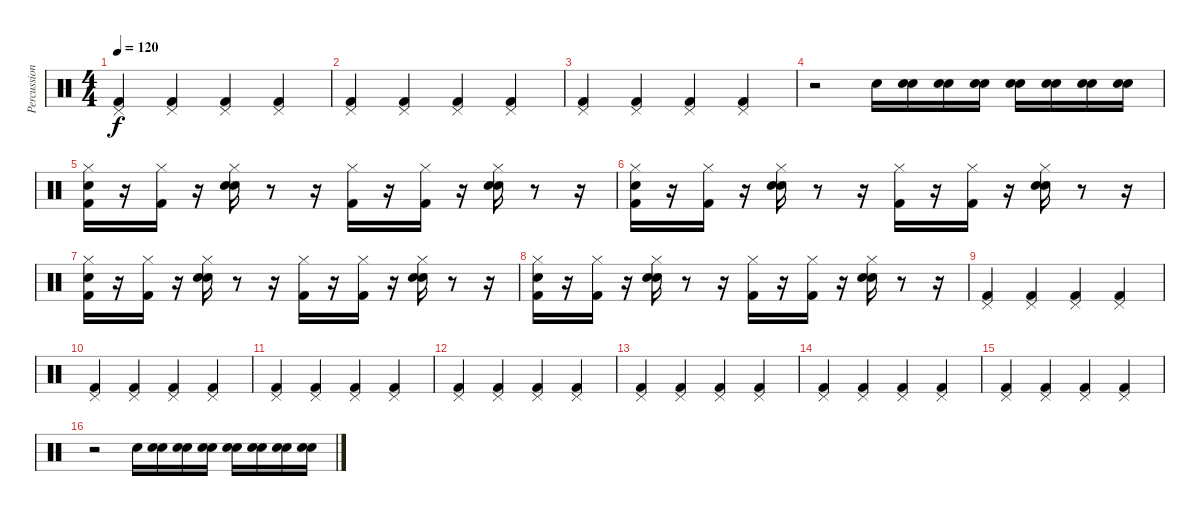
\track ("Percussions" "Percussion") {instrument percussion}
\staff {score}
\articulation defaults
\ts (4 4)
\tempo 120
\clef neutral
\ks c
("Pedal Hi-Hat (hit)" "Kick (hit) 2").4{dy f} ("Pedal Hi-Hat (hit)" "Kick (hit) 2").4 ("Pedal Hi-Hat (hit)" "Kick (hit) 2").4 ("Pedal Hi-Hat (hit)" "Kick (hit) 2").4 |
("Pedal Hi-Hat (hit)" "Kick (hit) 2").4 ("Pedal Hi-Hat (hit)" "Kick (hit) 2").4 ("Pedal Hi-Hat (hit)" "Kick (hit) 2").4 ("Pedal Hi-Hat (hit)" "Kick (hit) 2").4 |
("Pedal Hi-Hat (hit)" "Kick (hit) 2").4 ("Pedal Hi-Hat (hit)" "Kick (hit) 2").4 ("Pedal Hi-Hat (hit)" "Kick (hit) 2").4 ("Pedal Hi-Hat (hit)" "Kick (hit) 2").4 |
r.2 "Snare (hit) 2".16 ("Snare (hit)" "Snare (hit) 2").16 ("Snare (hit)" "Snare (hit) 2").16 ("Snare (hit)" "Snare (hit) 2").16 ("Snare (hit)" "Snare (hit) 2").16 ("Snare (hit)" "Snare (hit) 2").16 ("Snare (hit)" "Snare (hit) 2").16 ("Snare (hit)" "Snare (hit) 2").16 |
("Snare (hit)" "Kick (hit) 2" "Hi-Hat (closed)").16 r.16 ("Kick (hit) 2" "Hi-Hat (closed)").16 r.16 ("Hand Clap (hit)" "Hi-Hat (closed)" "Snare (hit) 2").16 r.8 r.16 ("Hi-Hat (closed)" "Kick (hit) 2").16 r.16 ("Hi-Hat (closed)" "Kick (hit) 2").16 r.16 ("Snare (hit) 2" "Hand Clap (hit)" "Hi-Hat (closed)").16 r.8 r.16 |
("Snare (hit)" "Kick (hit) 2" "Hi-Hat (closed)").16 r.16 ("Kick (hit) 2" "Hi-Hat (closed)").16 r.16 ("Hand Clap (hit)" "Hi-Hat (closed)" "Snare (hit) 2").16 r.8 r.16 ("Hi-Hat (closed)" "Kick (hit) 2").16 r.16 ("Hi-Hat (closed)" "Kick (hit) 2").16 r.16 ("Snare (hit) 2" "Hand Clap (hit)" "Hi-Hat (closed)").16 r.8 r.16 |
("Snare (hit)" "Kick (hit) 2" "Hi-Hat (closed)").16 r.16 ("Kick (hit) 2" "Hi-Hat (closed)").16 r.16 ("Hand Clap (hit)" "Hi-Hat (closed)" "Snare (hit) 2").16 r.8 r.16 ("Hi-Hat (closed)" "Kick (hit) 2").16 r.16 ("Hi-Hat (closed)" "Kick (hit) 2").16 r.16 ("Snare (hit) 2" "Hand Clap (hit)" "Hi-Hat (closed)").16 r.8 r.16 |
("Snare (hit)" "Kick (hit) 2" "Hi-Hat (closed)").16 r.16 ("Kick (hit) 2" "Hi-Hat (closed)").16 r.16 ("Hand Clap (hit)" "Hi-Hat (closed)" "Snare (hit) 2").16 r.8 r.16 ("Hi-Hat (closed)" "Kick (hit) 2").16 r.16 ("Hi-Hat (closed)" "Kick (hit) 2").16 r.16 ("Snare (hit) 2" "Hand Clap (hit)" "Hi-Hat (closed)").16 r.8 r.16 |
("Pedal Hi-Hat (hit)" "Kick (hit) 2").4 ("Pedal Hi-Hat (hit)" "Kick (hit) 2").4 ("Pedal Hi-Hat (hit)" "Kick (hit) 2").4 ("Pedal Hi-Hat (hit)" "Kick (hit) 2").4 |
("Pedal Hi-Hat (hit)" "Kick (hit) 2").4 ("Pedal Hi-Hat (hit)" "Kick (hit) 2").4 ("Pedal Hi-Hat (hit)" "Kick (hit) 2").4 ("Pedal Hi-Hat (hit)" "Kick (hit) 2").4 |
("Pedal Hi-Hat (hit)" "Kick (hit) 2").4 ("Pedal Hi-Hat (hit)" "Kick (hit) 2").4 ("Pedal Hi-Hat (hit)" "Kick (hit) 2").4 ("Pedal Hi-Hat (hit)" "Kick (hit) 2").4 |
("Pedal Hi-Hat (hit)" "Kick (hit) 2").4 ("Pedal Hi-Hat (hit)" "Kick (hit) 2").4 ("Pedal Hi-Hat (hit)" "Kick (hit) 2").4 ("Pedal Hi-Hat (hit)" "Kick (hit) 2").4 |
("Pedal Hi-Hat (hit)" "Kick (hit) 2").4 ("Pedal Hi-Hat (hit)" "Kick (hit) 2").4 ("Pedal Hi-Hat (hit)" "Kick (hit) 2").4 ("Pedal Hi-Hat (hit)" "Kick (hit) 2").4 |
("Pedal Hi-Hat (hit)" "Kick (hit) 2").4 ("Pedal Hi-Hat (hit)" "Kick (hit) 2").4 ("Pedal Hi-Hat (hit)" "Kick (hit) 2").4 ("Pedal Hi-Hat (hit)" "Kick (hit) 2").4 |
("Pedal Hi-Hat (hit)" "Kick (hit) 2").4 ("Pedal Hi-Hat (hit)" "Kick (hit) 2").4 ("Pedal Hi-Hat (hit)" "Kick (hit) 2").4 ("Pedal Hi-Hat (hit)" "Kick (hit) 2").4 |
r.2 "Snare (hit) 2".16 ("Snare (hit)" "Snare (hit) 2").16 ("Snare (hit)" "Snare (hit) 2").16 ("Snare (hit)" "Snare (hit) 2").16 ("Snare (hit)" "Snare (hit) 2").16 ("Snare (hit)" "Snare (hit) 2").16 ("Snare (hit)" "Snare (hit) 2").16 ("Snare (hit)" "Snare (hit) 2").16
